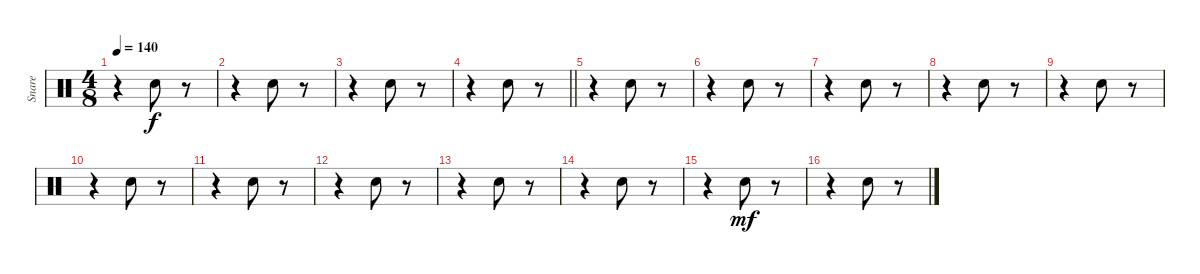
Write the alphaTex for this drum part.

\track ("Snare" "Snare") {instrument percussion}
\staff {score}
\articulation defaults
\ts (4 8)
\tempo 140
\clef neutral
\ks c
r.4{dy f} "Snare (hit) 2".8 r.8 |
r.4 "Snare (hit) 2".8 r.8 |
r.4 "Snare (hit) 2".8 r.8 |
\barLineRight lightlight
r.4 "Snare (hit) 2".8 r.8 |
r.4 "Snare (hit) 2".8 r.8 |
r.4 "Snare (hit) 2".8 r.8 |
r.4 "Snare (hit) 2".8 r.8 |
r.4 "Snare (hit) 2".8 r.8 |
r.4 "Snare (hit) 2".8 r.8 |
r.4 "Snare (hit) 2".8 r.8 |
r.4 "Snare (hit) 2".8 r.8 |
r.4 "Snare (hit) 2".8 r.8 |
r.4 "Snare (hit) 2".8 r.8 |
r.4 "Snare (hit) 2".8 r.8 |
r.4 "Snare (hit) 2".8{dy mf} r.8 |
r.4 "Snare (hit) 2".8 r.8
